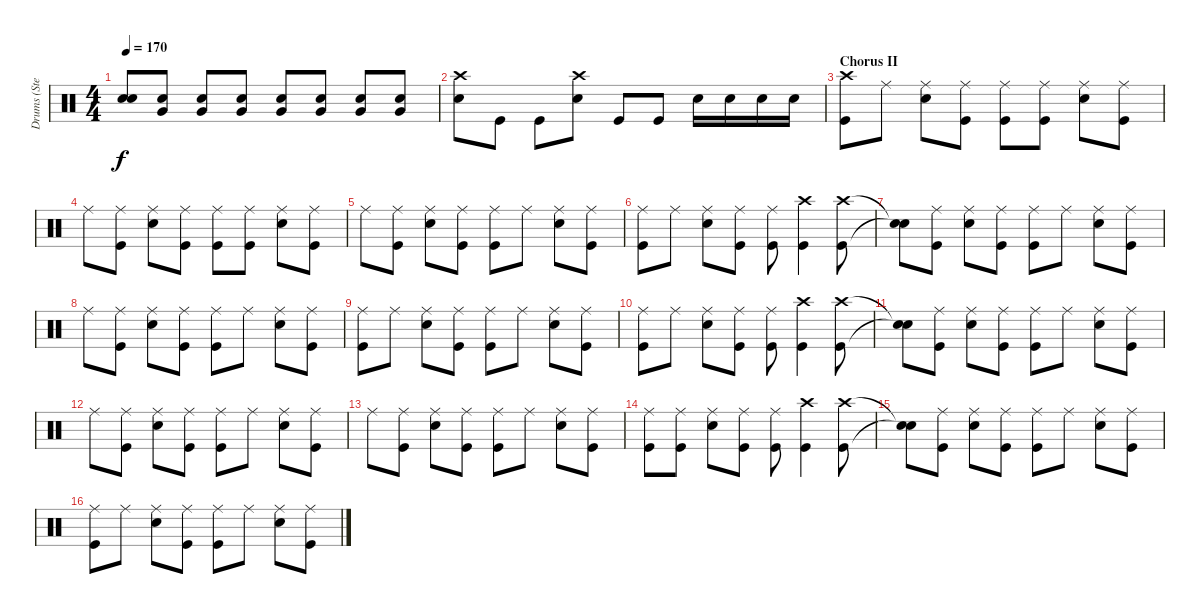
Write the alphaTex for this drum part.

\track ("Drums (Steven)" "Drums (Ste") {instrument percussion}
\staff {score}
\articulation defaults
\ts (4 4)
\tempo 170
\clef neutral
\ks c
("Snare (hit) 2" "Snare (hit) 2").8{dy f} ("Snare (hit) 2" "Very Low Tom (hit)").8 ("Snare (hit) 2" "Very Low Tom (hit)").8 ("Snare (hit) 2" "Very Low Tom (hit)").8 ("Snare (hit) 2" "Very Low Tom (hit)").8 ("Snare (hit) 2" "Very Low Tom (hit)").8 ("Snare (hit) 2" "Very Low Tom (hit)").8 ("Snare (hit) 2" "Very Low Tom (hit)").8 |
("Crash high (hit)" "Snare (hit) 2").8 "Kick (hit)".8 "Kick (hit)".8 ("Crash high (hit)" "Snare (hit) 2").8 "Kick (hit)".8 "Kick (hit)".8 "Electric Snare (hit)".16 "Electric Snare (hit)".16 "Electric Snare (hit)".16 "Electric Snare (hit)".16 |
\section ("" "Chorus II")
("Crash high (hit)" "Kick (hit)").8 "Ride (middle)".8 ("Ride (middle)" "Snare (hit) 2").8 ("Ride (middle)" "Kick (hit)").8 ("Ride (middle)" "Kick (hit)").8 ("Ride (middle)" "Kick (hit)").8 ("Ride (middle)" "Snare (hit) 2").8 ("Ride (middle)" "Kick (hit)").8 |
"Ride (middle)".8 ("Ride (middle)" "Kick (hit)").8 ("Ride (middle)" "Snare (hit) 2").8 ("Ride (middle)" "Kick (hit)").8 ("Ride (middle)" "Kick (hit)").8 ("Ride (middle)" "Kick (hit)").8 ("Ride (middle)" "Snare (hit) 2").8 ("Ride (middle)" "Kick (hit)").8 |
"Ride (middle)".8 ("Ride (middle)" "Kick (hit)").8 ("Ride (middle)" "Snare (hit) 2").8 ("Ride (middle)" "Kick (hit)").8 ("Ride (middle)" "Kick (hit)").8 "Ride (middle)".8 ("Ride (middle)" "Snare (hit) 2").8 ("Ride (middle)" "Kick (hit)").8 |
("Ride (middle)" "Kick (hit)").8 "Ride (middle)".8 ("Ride (middle)" "Snare (hit) 2").8 ("Ride (middle)" "Kick (hit)").8 ("Ride (middle)" "Kick (hit)").8 ("Crash high (hit)" "Kick (hit)").4 ("Crash high (hit)" "Kick (hit)").8 |
("Snare (hit)"{t} "Snare (hit)"{t}).8 ("Ride (middle)" "Kick (hit)").8 ("Ride (middle)" "Snare (hit) 2").8 ("Ride (middle)" "Kick (hit)").8 ("Ride (middle)" "Kick (hit)").8 "Ride (middle)".8 ("Ride (middle)" "Snare (hit) 2").8 ("Ride (middle)" "Kick (hit)").8 |
"Ride (middle)".8 ("Ride (middle)" "Kick (hit)").8 ("Ride (middle)" "Snare (hit) 2").8 ("Ride (middle)" "Kick (hit)").8 ("Ride (middle)" "Kick (hit)").8 "Ride (middle)".8 ("Ride (middle)" "Snare (hit) 2").8 ("Ride (middle)" "Kick (hit)").8 |
("Ride (middle)" "Kick (hit)").8 "Ride (middle)".8 ("Ride (middle)" "Snare (hit) 2").8 ("Ride (middle)" "Kick (hit)").8 ("Ride (middle)" "Kick (hit)").8 "Ride (middle)".8 ("Ride (middle)" "Snare (hit) 2").8 ("Ride (middle)" "Kick (hit)").8 |
("Ride (middle)" "Kick (hit)").8 "Ride (middle)".8 ("Ride (middle)" "Snare (hit) 2").8 ("Ride (middle)" "Kick (hit)").8 ("Ride (middle)" "Kick (hit)").8 ("Crash high (hit)" "Kick (hit)").4 ("Crash high (hit)" "Kick (hit)").8 |
("Snare (hit)"{t} "Snare (hit)"{t}).8 ("Ride (middle)" "Kick (hit)").8 ("Ride (middle)" "Snare (hit) 2").8 ("Ride (middle)" "Kick (hit)").8 ("Ride (middle)" "Kick (hit)").8 "Ride (middle)".8 ("Ride (middle)" "Snare (hit) 2").8 ("Ride (middle)" "Kick (hit)").8 |
"Ride (middle)".8 ("Ride (middle)" "Kick (hit)").8 ("Ride (middle)" "Snare (hit) 2").8 ("Ride (middle)" "Kick (hit)").8 ("Ride (middle)" "Kick (hit)").8 "Ride (middle)".8 ("Ride (middle)" "Snare (hit) 2").8 ("Ride (middle)" "Kick (hit)").8 |
"Ride (middle)".8 ("Ride (middle)" "Kick (hit)").8 ("Ride (middle)" "Snare (hit) 2").8 ("Ride (middle)" "Kick (hit)").8 ("Ride (middle)" "Kick (hit)").8 "Ride (middle)".8 ("Ride (middle)" "Snare (hit) 2").8 ("Ride (middle)" "Kick (hit)").8 |
("Ride (middle)" "Kick (hit)").8 ("Ride (middle)" "Kick (hit)").8 ("Ride (middle)" "Snare (hit) 2").8 ("Ride (middle)" "Kick (hit)").8 ("Ride (middle)" "Kick (hit)").8 ("Crash high (hit)" "Kick (hit)").4 ("Crash high (hit)" "Kick (hit)").8 |
("Snare (hit)"{t} "Snare (hit)"{t}).8 ("Ride (middle)" "Kick (hit)").8 ("Ride (middle)" "Snare (hit) 2").8 ("Ride (middle)" "Kick (hit)").8 ("Ride (middle)" "Kick (hit)").8 "Ride (middle)".8 ("Ride (middle)" "Snare (hit) 2").8 ("Ride (middle)" "Kick (hit)").8 |
("Ride (middle)" "Kick (hit)").8 "Ride (middle)".8 ("Ride (middle)" "Snare (hit) 2").8 ("Ride (middle)" "Kick (hit)").8 ("Ride (middle)" "Kick (hit)").8 "Ride (middle)".8 ("Ride (middle)" "Snare (hit) 2").8 ("Ride (middle)" "Kick (hit)").8
